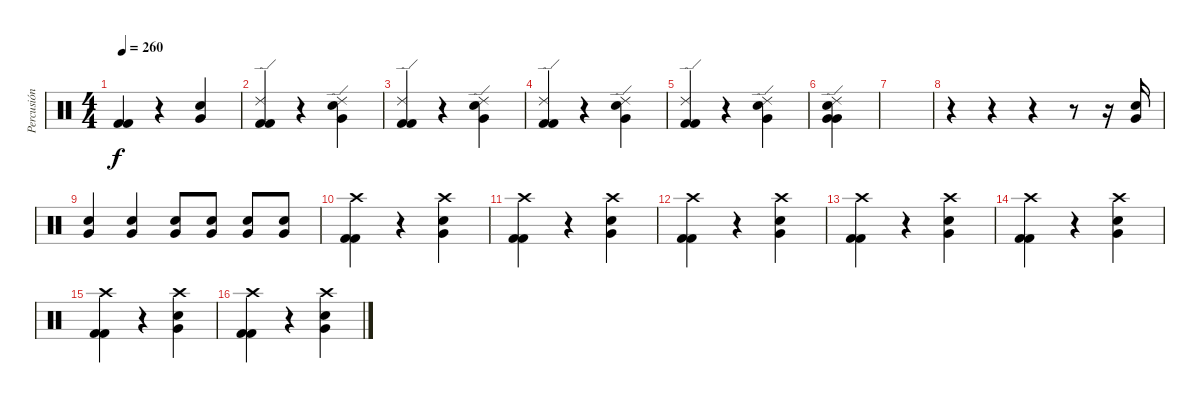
\track ("Percusión" "Percusión") {instrument percussion}
\staff {score}
\articulation defaults
\ts (4 4)
\tempo 260
\clef neutral
\ks c
("Kick (hit) 2" "Kick (hit) 2").4{dy f} r.4 ("Very Low Tom (hit)" "Electric Snare (hit)").4 |
("Kick (hit) 2" "Kick (hit) 2" "Ride (edge) 2").4 r.4 ("Very Low Tom (hit)" "Electric Snare (hit)" "Ride (edge) 2").4 |
("Kick (hit) 2" "Kick (hit) 2" "Ride (edge) 2").4 r.4 ("Very Low Tom (hit)" "Electric Snare (hit)" "Ride (edge) 2").4 |
("Kick (hit) 2" "Kick (hit) 2" "Ride (edge) 2").4 r.4 ("Very Low Tom (hit)" "Electric Snare (hit)" "Ride (edge) 2").4 |
("Kick (hit) 2" "Kick (hit) 2" "Ride (edge) 2").4 r.4 ("Very Low Tom (hit)" "Electric Snare (hit)" "Ride (edge) 2").4 |
("Electric Snare (hit)" "Very Low Tom (hit)" "Very Low Tom (hit)" "Ride (edge) 2").4 |
|
r.4 r.4 r.4 r.8 r.16 ("Very Low Tom (hit)" "Electric Snare (hit)").16 |
("Very Low Tom (hit)" "Electric Snare (hit)").4 ("Very Low Tom (hit)" "Electric Snare (hit)").4 ("Very Low Tom (hit)" "Electric Snare (hit)").8 ("Very Low Tom (hit)" "Electric Snare (hit)").8 ("Very Low Tom (hit)" "Electric Snare (hit)").8 ("Very Low Tom (hit)" "Electric Snare (hit)").8 |
("Kick (hit) 2" "Kick (hit) 2" "Crash high (hit)").4 r.4 ("Very Low Tom (hit)" "Electric Snare (hit)" "Crash high (hit)").4 |
("Kick (hit) 2" "Kick (hit) 2" "Crash high (hit)").4 r.4 ("Very Low Tom (hit)" "Electric Snare (hit)" "Crash high (hit)").4 |
("Kick (hit) 2" "Kick (hit) 2" "Crash high (hit)").4 r.4 ("Very Low Tom (hit)" "Electric Snare (hit)" "Crash high (hit)").4 |
("Kick (hit) 2" "Kick (hit) 2" "Crash high (hit)").4 r.4 ("Very Low Tom (hit)" "Electric Snare (hit)" "Crash high (hit)").4 |
("Kick (hit) 2" "Kick (hit) 2" "Crash high (hit)").4 r.4 ("Very Low Tom (hit)" "Electric Snare (hit)" "Crash high (hit)").4 |
("Kick (hit) 2" "Kick (hit) 2" "Crash high (hit)").4 r.4 ("Very Low Tom (hit)" "Electric Snare (hit)" "Crash high (hit)").4 |
("Kick (hit) 2" "Kick (hit) 2" "Crash high (hit)").4 r.4 ("Very Low Tom (hit)" "Electric Snare (hit)" "Crash high (hit)").4
